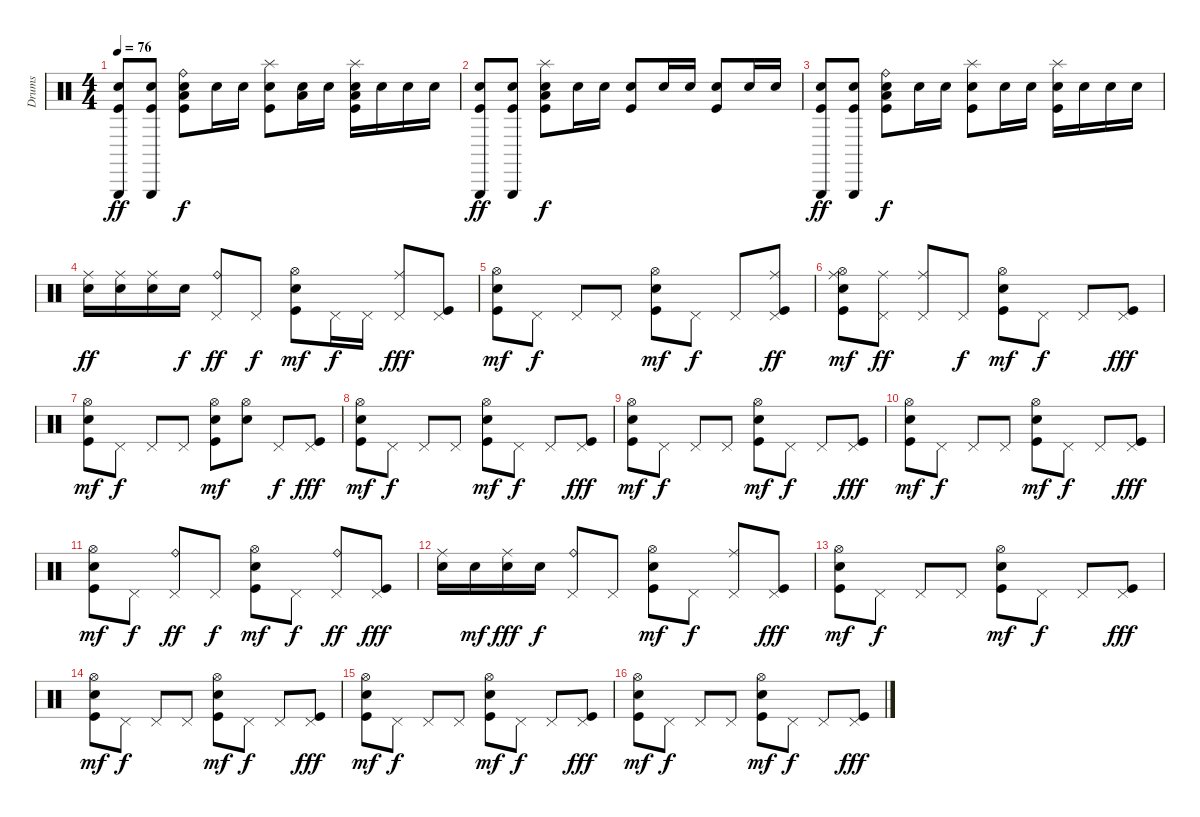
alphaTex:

\track ("Drums" "Drums") {instrument percussion}
\staff {score}
\articulation defaults
\ts (4 4)
\tempo 76
\clef neutral
\ks c
("Snare (hit) 2" "Triangle (hit)" "Kick (hit)").8{dy ff} ("Snare (hit) 2" "Triangle (hit)" "Kick (hit)").8 ("Snare (hit) 2" "Ride (bell)" "Kick (hit)" "Low Tom (hit)").8{dy f} "Snare (hit) 2".16 "Snare (hit) 2".16 ("Snare (hit) 2" "Splash (hit)" "Kick (hit)").8 ("Snare (hit) 2" "Low Tom (hit)").16 "Snare (hit) 2".16 ("Snare (hit) 2" "Splash (hit)" "Kick (hit)" "Low Tom (hit)").16 "Snare (hit) 2".16 "Snare (hit) 2".16 "Snare (hit) 2".16 |
("Snare (hit) 2" "Triangle (hit)" "Kick (hit)").8{dy ff} ("Snare (hit) 2" "Triangle (hit)" "Kick (hit)").8 ("Snare (hit) 2" "Splash (hit)" "Kick (hit)" "Low Tom (hit)").8{dy f} "Snare (hit) 2".16 "Snare (hit) 2".16 ("Snare (hit) 2" "Kick (hit)").8 "Snare (hit) 2".16 "Snare (hit) 2".16 ("Snare (hit) 2" "Kick (hit)").8 "Snare (hit) 2".16 "Snare (hit) 2".16 |
("Snare (hit) 2" "Triangle (hit)" "Kick (hit)").8{dy ff} ("Snare (hit) 2" "Triangle (hit)" "Kick (hit)").8 ("Snare (hit) 2" "Ride (bell)" "Kick (hit)" "Low Tom (hit)").8{dy f} "Snare (hit) 2".16 "Snare (hit) 2".16 ("Snare (hit) 2" "Splash (hit)" "Kick (hit)").8 "Snare (hit) 2".16 "Snare (hit) 2".16 ("Snare (hit) 2" "Splash (hit)" "Kick (hit)").16 "Snare (hit) 2".16 "Snare (hit) 2".16 "Snare (hit) 2".16 |
("Snare (hit) 2" "Ride (middle)").16{dy ff} ("Snare (hit) 2" "Ride (middle)").16 ("Snare (hit) 2" "Ride (middle)").16 "Snare (hit) 2".16{dy f} ("Ride (bell)" "Pedal Hi-Hat (hit)").8{dy ff} "Pedal Hi-Hat (hit)".8{dy f} ("Electric Snare (hit)" "Kick (hit)" "Hi-Hat (open)").8{dy mf} "Pedal Hi-Hat (hit)".16{dy f} "Pedal Hi-Hat (hit)".16 ("Ride (middle)" "Pedal Hi-Hat (hit)").8{dy fff} ("Kick (hit)" "Pedal Hi-Hat (hit)").8 |
("Electric Snare (hit)" "Kick (hit)" "Hi-Hat (open)").8{dy mf} "Pedal Hi-Hat (hit)".8{dy f} "Pedal Hi-Hat (hit)".8 "Pedal Hi-Hat (hit)".8 ("Electric Snare (hit)" "Kick (hit)" "Hi-Hat (open)").8{dy mf} "Pedal Hi-Hat (hit)".8{dy f} "Pedal Hi-Hat (hit)".8 ("Kick (hit)" "Ride (middle)" "Pedal Hi-Hat (hit)").8{dy ff} |
("Electric Snare (hit)" "Kick (hit)" "Ride (middle)" "Hi-Hat (open)").8{dy mf} ("Ride (middle)" "Pedal Hi-Hat (hit)").8{dy ff} ("Ride (middle)" "Pedal Hi-Hat (hit)").8 "Pedal Hi-Hat (hit)".8{dy f} ("Electric Snare (hit)" "Kick (hit)" "Hi-Hat (open)").8{dy mf} "Pedal Hi-Hat (hit)".8{dy f} "Pedal Hi-Hat (hit)".8 ("Kick (hit)" "Pedal Hi-Hat (hit)").8{dy fff} |
("Electric Snare (hit)" "Kick (hit)" "Hi-Hat (open)").8{dy mf} "Pedal Hi-Hat (hit)".8{dy f} "Pedal Hi-Hat (hit)".8 "Pedal Hi-Hat (hit)".8 ("Electric Snare (hit)" "Kick (hit)" "Hi-Hat (open)").8{dy mf} ("Electric Snare (hit)" "Hi-Hat (open)").8 "Pedal Hi-Hat (hit)".8{dy f} ("Kick (hit)" "Pedal Hi-Hat (hit)").8{dy fff} |
("Electric Snare (hit)" "Kick (hit)" "Hi-Hat (open)").8{dy mf} "Pedal Hi-Hat (hit)".8{dy f} "Pedal Hi-Hat (hit)".8 "Pedal Hi-Hat (hit)".8 ("Electric Snare (hit)" "Kick (hit)" "Hi-Hat (open)").8{dy mf} "Pedal Hi-Hat (hit)".8{dy f} "Pedal Hi-Hat (hit)".8 ("Kick (hit)" "Pedal Hi-Hat (hit)").8{dy fff} |
("Electric Snare (hit)" "Kick (hit)" "Hi-Hat (open)").8{dy mf} "Pedal Hi-Hat (hit)".8{dy f} "Pedal Hi-Hat (hit)".8 "Pedal Hi-Hat (hit)".8 ("Electric Snare (hit)" "Kick (hit)" "Hi-Hat (open)").8{dy mf} "Pedal Hi-Hat (hit)".8{dy f} "Pedal Hi-Hat (hit)".8 ("Kick (hit)" "Pedal Hi-Hat (hit)").8{dy fff} |
("Electric Snare (hit)" "Kick (hit)" "Hi-Hat (open)").8{dy mf} "Pedal Hi-Hat (hit)".8{dy f} "Pedal Hi-Hat (hit)".8 "Pedal Hi-Hat (hit)".8 ("Electric Snare (hit)" "Kick (hit)" "Hi-Hat (open)").8{dy mf} "Pedal Hi-Hat (hit)".8{dy f} "Pedal Hi-Hat (hit)".8 ("Kick (hit)" "Pedal Hi-Hat (hit)").8{dy fff} |
("Electric Snare (hit)" "Kick (hit)" "Hi-Hat (open)").8{dy mf} "Pedal Hi-Hat (hit)".8{dy f} ("Ride (bell)" "Pedal Hi-Hat (hit)").8{dy ff} "Pedal Hi-Hat (hit)".8{dy f} ("Electric Snare (hit)" "Kick (hit)" "Hi-Hat (open)").8{dy mf} "Pedal Hi-Hat (hit)".8{dy f} ("Ride (bell)" "Pedal Hi-Hat (hit)").8{dy ff} ("Kick (hit)" "Pedal Hi-Hat (hit)").8{dy fff} |
("Snare (hit) 2" "Ride (middle)").16 "Snare (hit) 2".16{dy mf} ("Snare (hit) 2" "Ride (middle)").16{dy fff} "Snare (hit) 2".16{dy f} ("Ride (bell)" "Pedal Hi-Hat (hit)").8 "Pedal Hi-Hat (hit)".8 ("Electric Snare (hit)" "Kick (hit)" "Hi-Hat (open)").8{dy mf} "Pedal Hi-Hat (hit)".8{dy f} ("Ride (middle)" "Pedal Hi-Hat (hit)").8 ("Kick (hit)" "Pedal Hi-Hat (hit)").8{dy fff} |
("Electric Snare (hit)" "Kick (hit)" "Hi-Hat (open)").8{dy mf} "Pedal Hi-Hat (hit)".8{dy f} "Pedal Hi-Hat (hit)".8 "Pedal Hi-Hat (hit)".8 ("Electric Snare (hit)" "Kick (hit)" "Hi-Hat (open)").8{dy mf} "Pedal Hi-Hat (hit)".8{dy f} "Pedal Hi-Hat (hit)".8 ("Kick (hit)" "Pedal Hi-Hat (hit)").8{dy fff} |
("Electric Snare (hit)" "Kick (hit)" "Hi-Hat (open)").8{dy mf} "Pedal Hi-Hat (hit)".8{dy f} "Pedal Hi-Hat (hit)".8 "Pedal Hi-Hat (hit)".8 ("Electric Snare (hit)" "Kick (hit)" "Hi-Hat (open)").8{dy mf} "Pedal Hi-Hat (hit)".8{dy f} "Pedal Hi-Hat (hit)".8 ("Kick (hit)" "Pedal Hi-Hat (hit)").8{dy fff} |
("Electric Snare (hit)" "Kick (hit)" "Hi-Hat (open)").8{dy mf} "Pedal Hi-Hat (hit)".8{dy f} "Pedal Hi-Hat (hit)".8 "Pedal Hi-Hat (hit)".8 ("Electric Snare (hit)" "Kick (hit)" "Hi-Hat (open)").8{dy mf} "Pedal Hi-Hat (hit)".8{dy f} "Pedal Hi-Hat (hit)".8 ("Kick (hit)" "Pedal Hi-Hat (hit)").8{dy fff} |
("Electric Snare (hit)" "Kick (hit)" "Hi-Hat (open)").8{dy mf} "Pedal Hi-Hat (hit)".8{dy f} "Pedal Hi-Hat (hit)".8 "Pedal Hi-Hat (hit)".8 ("Electric Snare (hit)" "Kick (hit)" "Hi-Hat (open)").8{dy mf} "Pedal Hi-Hat (hit)".8{dy f} "Pedal Hi-Hat (hit)".8 ("Kick (hit)" "Pedal Hi-Hat (hit)").8{dy fff}
